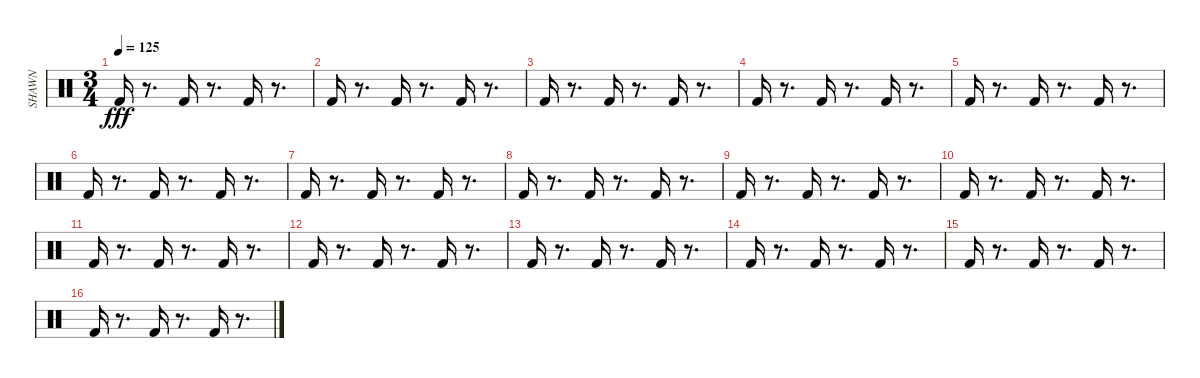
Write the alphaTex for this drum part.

\track ("SHAWN" "SHAWN") {instrument percussion}
\staff {score}
\articulation defaults
\ts (3 4)
\tempo 125
\clef neutral
\ks c "Kick (hit) 2".16{dy fff}
r.8{d} "Kick (hit) 2".16 r.8{d} "Kick (hit) 2".16 r.8{d} |
"Kick (hit) 2".16 r.8{d} "Kick (hit) 2".16 r.8{d} "Kick (hit) 2".16 r.8{d} |
"Kick (hit) 2".16 r.8{d} "Kick (hit) 2".16 r.8{d} "Kick (hit) 2".16 r.8{d} |
"Kick (hit) 2".16 r.8{d} "Kick (hit) 2".16 r.8{d} "Kick (hit) 2".16 r.8{d} |
"Kick (hit) 2".16 r.8{d} "Kick (hit) 2".16 r.8{d} "Kick (hit) 2".16 r.8{d} |
"Kick (hit) 2".16 r.8{d} "Kick (hit) 2".16 r.8{d} "Kick (hit) 2".16 r.8{d} |
"Kick (hit) 2".16 r.8{d} "Kick (hit) 2".16 r.8{d} "Kick (hit) 2".16 r.8{d} |
"Kick (hit) 2".16 r.8{d} "Kick (hit) 2".16 r.8{d} "Kick (hit) 2".16 r.8{d} |
"Kick (hit) 2".16 r.8{d} "Kick (hit) 2".16 r.8{d} "Kick (hit) 2".16 r.8{d} |
"Kick (hit) 2".16 r.8{d} "Kick (hit) 2".16 r.8{d} "Kick (hit) 2".16 r.8{d} |
"Kick (hit) 2".16 r.8{d} "Kick (hit) 2".16 r.8{d} "Kick (hit) 2".16 r.8{d} |
"Kick (hit) 2".16 r.8{d} "Kick (hit) 2".16 r.8{d} "Kick (hit) 2".16 r.8{d} |
"Kick (hit) 2".16 r.8{d} "Kick (hit) 2".16 r.8{d} "Kick (hit) 2".16 r.8{d} |
"Kick (hit) 2".16 r.8{d} "Kick (hit) 2".16 r.8{d} "Kick (hit) 2".16 r.8{d} |
"Kick (hit) 2".16 r.8{d} "Kick (hit) 2".16 r.8{d} "Kick (hit) 2".16 r.8{d} |
"Kick (hit) 2".16 r.8{d} "Kick (hit) 2".16 r.8{d} "Kick (hit) 2".16 r.8{d}
